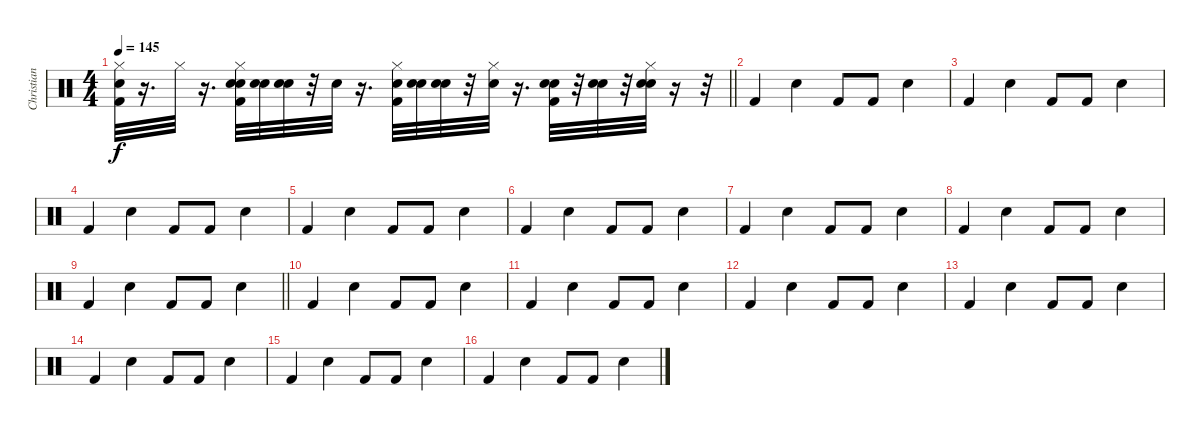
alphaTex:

\track ("Christian Paredes" "Christian ") {instrument percussion}
\staff {score}
\articulation defaults
\ts (4 4)
\tempo 145
\clef neutral
\barLineRight lightlight
\ks c
("Hi-Hat (closed)" "Kick (hit) 2" "Snare (hit) 2").32{dy f} r.16{d} "Hi-Hat (closed)".32 r.16{d} ("Electric Snare (hit)" "Snare (hit) 2" "Hi-Hat (closed)" "Kick (hit) 2").32 ("Electric Snare (hit)" "Snare (hit) 2").32 ("Electric Snare (hit)" "Snare (hit) 2").32 r.32 "Electric Snare (hit)".32 r.16{d} ("Snare (hit) 2" "Kick (hit) 2" "Hi-Hat (closed)").32 ("Electric Snare (hit)" "Snare (hit) 2").32 ("Electric Snare (hit)" "Snare (hit) 2").32 r.32 ("Snare (hit) 2" "Hi-Hat (closed)").32 r.16{d} ("Electric Snare (hit)" "Kick (hit) 2" "Snare (hit) 2").32 r.32 ("Electric Snare (hit)" "Snare (hit) 2").32 r.32 ("Electric Snare (hit)" "Snare (hit) 2" "Hi-Hat (closed)").32 r.16 r.32 |
"Kick (hit) 2".4 "Snare (hit) 2".4 "Kick (hit) 2".8 "Kick (hit) 2".8 "Snare (hit) 2".4 |
"Kick (hit) 2".4 "Snare (hit) 2".4 "Kick (hit) 2".8 "Kick (hit) 2".8 "Snare (hit) 2".4 |
"Kick (hit) 2".4 "Snare (hit) 2".4 "Kick (hit) 2".8 "Kick (hit) 2".8 "Snare (hit) 2".4 |
"Kick (hit) 2".4 "Snare (hit) 2".4 "Kick (hit) 2".8 "Kick (hit) 2".8 "Snare (hit) 2".4 |
"Kick (hit) 2".4 "Snare (hit) 2".4 "Kick (hit) 2".8 "Kick (hit) 2".8 "Snare (hit) 2".4 |
"Kick (hit) 2".4 "Snare (hit) 2".4 "Kick (hit) 2".8 "Kick (hit) 2".8 "Snare (hit) 2".4 |
"Kick (hit) 2".4 "Snare (hit) 2".4 "Kick (hit) 2".8 "Kick (hit) 2".8 "Snare (hit) 2".4 |
\barLineRight lightlight "Kick (hit) 2".4 "Snare (hit) 2".4 "Kick (hit) 2".8 "Kick (hit) 2".8 "Snare (hit) 2".4
|
"Kick (hit) 2".4 "Snare (hit) 2".4 "Kick (hit) 2".8 "Kick (hit) 2".8 "Snare (hit) 2".4 |
"Kick (hit) 2".4 "Snare (hit) 2".4 "Kick (hit) 2".8 "Kick (hit) 2".8 "Snare (hit) 2".4 |
"Kick (hit) 2".4 "Snare (hit) 2".4 "Kick (hit) 2".8 "Kick (hit) 2".8 "Snare (hit) 2".4 |
"Kick (hit) 2".4 "Snare (hit) 2".4 "Kick (hit) 2".8 "Kick (hit) 2".8 "Snare (hit) 2".4 |
"Kick (hit) 2".4 "Snare (hit) 2".4 "Kick (hit) 2".8 "Kick (hit) 2".8 "Snare (hit) 2".4 |
"Kick (hit) 2".4 "Snare (hit) 2".4 "Kick (hit) 2".8 "Kick (hit) 2".8 "Snare (hit) 2".4 |
"Kick (hit) 2".4 "Snare (hit) 2".4 "Kick (hit) 2".8 "Kick (hit) 2".8 "Snare (hit) 2".4
